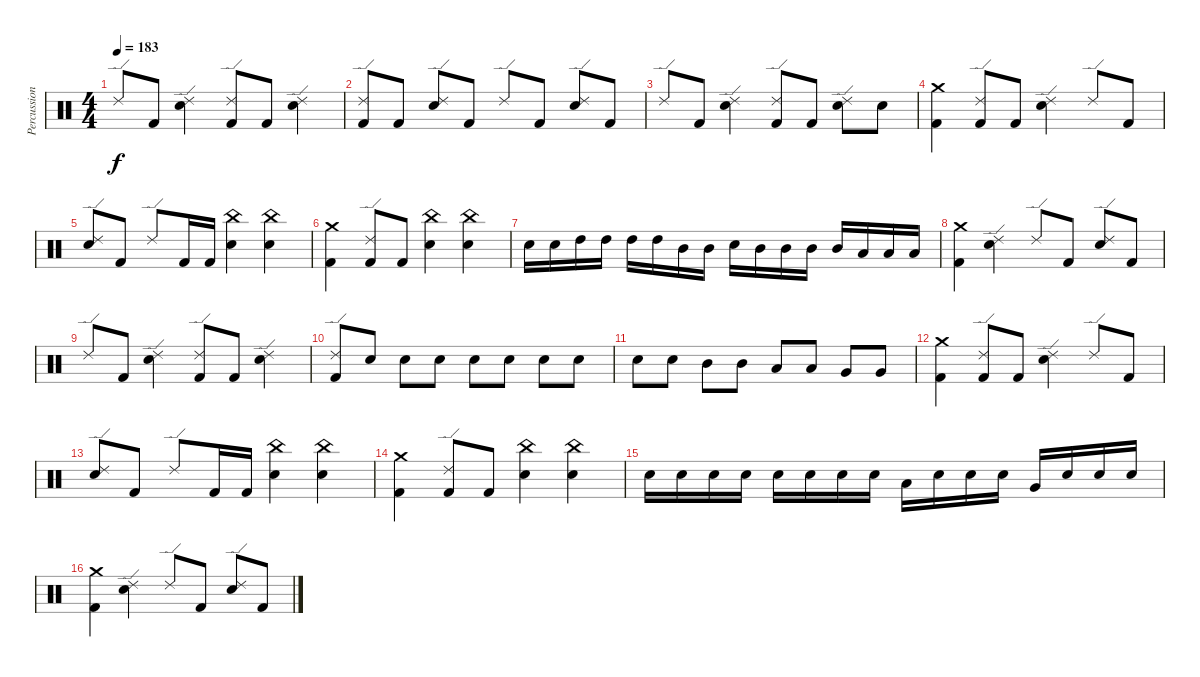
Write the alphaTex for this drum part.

\track ("Percussion" "Percussion") {instrument percussion}
\staff {score}
\articulation defaults
\ts (4 4)
\tempo 183
\clef neutral
\ks c "Ride (edge) 2".8{dy f} "Kick (hit) 2".8
("Ride (edge) 2" "Snare (hit) 2").4 ("Ride (edge) 2" "Kick (hit) 2").8 "Kick (hit) 2".8 ("Ride (edge) 2" "Snare (hit) 2").4 |
("Ride (edge) 2" "Kick (hit) 2").8 "Kick (hit) 2".8 ("Ride (edge) 2" "Snare (hit) 2").8 "Kick (hit) 2".8 "Ride (edge) 2".8 "Kick (hit) 2".8 ("Ride (edge) 2" "Snare (hit) 2").8 "Kick (hit) 2".8 |
"Ride (edge) 2".8 "Kick (hit) 2".8 ("Ride (edge) 2" "Snare (hit) 2").4 ("Ride (edge) 2" "Kick (hit) 2").8 "Kick (hit) 2".8 ("Ride (edge) 2" "Snare (hit) 2").8 "Snare (hit) 2".8 |
("Crash medium (hit)" "Kick (hit) 2").4 ("Ride (edge) 2" "Kick (hit) 2").8 "Kick (hit) 2".8 ("Ride (edge) 2" "Snare (hit) 2").4 "Ride (edge) 2".8 "Kick (hit) 2".8 |
("Ride (edge) 2" "Snare (hit) 2").8 "Kick (hit) 2".8 "Ride (edge) 2".8 "Kick (hit) 2".16 "Kick (hit) 2".16 ("China (hit)" "Snare (hit) 2").4 ("China (hit)" "Snare (hit) 2").4 |
("Crash medium (hit)" "Kick (hit) 2").4 ("Ride (edge) 2" "Kick (hit) 2").8 "Kick (hit) 2".8 ("China (hit)" "Snare (hit) 2").4 ("China (hit)" "Snare (hit) 2").4 |
"Snare (hit) 2".16 "Snare (hit) 2".16 "High Tom (hit)".16 "High Tom (hit)".16 "High Tom (hit)".16 "High Tom (hit)".16 "Mid Tom (hit)".16 "Mid Tom (hit)".16 "Snare (hit) 2".16 "Mid Tom (hit)".16 "Mid Tom (hit)".16 "Mid Tom (hit)".16 "Mid Tom (hit)".16 "Low Tom (hit)".16 "Low Tom (hit)".16 "Low Tom (hit)".16 |
("Crash medium (hit)" "Kick (hit) 2").4 ("Ride (edge) 2" "Snare (hit) 2").4 "Ride (edge) 2".8 "Kick (hit) 2".8 ("Ride (edge) 2" "Snare (hit) 2").8 "Kick (hit) 2".8 |
"Ride (edge) 2".8 "Kick (hit) 2".8 ("Ride (edge) 2" "Snare (hit) 2").4 ("Ride (edge) 2" "Kick (hit) 2").8 "Kick (hit) 2".8 ("Ride (edge) 2" "Snare (hit) 2").4 |
("Ride (edge) 2" "Kick (hit) 2").8 "Snare (hit) 2".8 "Snare (hit) 2".8 "Snare (hit) 2".8 "Snare (hit) 2".8 "Snare (hit) 2".8 "Snare (hit) 2".8 "Snare (hit) 2".8 |
"Snare (hit) 2".8 "Snare (hit) 2".8 "Mid Tom (hit)".8 "Mid Tom (hit)".8 "Low Tom (hit)".8 "Low Tom (hit)".8 "Very Low Tom (hit)".8 "Very Low Tom (hit)".8 |
("Crash medium (hit)" "Kick (hit) 2").4 ("Ride (edge) 2" "Kick (hit) 2").8 "Kick (hit) 2".8 ("Ride (edge) 2" "Snare (hit) 2").4 "Ride (edge) 2".8 "Kick (hit) 2".8 |
("Ride (edge) 2" "Snare (hit) 2").8 "Kick (hit) 2".8 "Ride (edge) 2".8 "Kick (hit) 2".16 "Kick (hit) 2".16 ("China (hit)" "Snare (hit) 2").4 ("China (hit)" "Snare (hit) 2").4 |
("Crash medium (hit)" "Kick (hit) 2").4 ("Ride (edge) 2" "Kick (hit) 2").8 "Kick (hit) 2".8 ("China (hit)" "Snare (hit) 2").4 ("China (hit)" "Snare (hit) 2").4 |
"Snare (hit) 2".16 "Snare (hit) 2".16 "Snare (hit) 2".16 "Snare (hit) 2".16 "Snare (hit) 2".16 "Snare (hit) 2".16 "Snare (hit) 2".16 "Snare (hit) 2".16 "Low Tom (hit)".16 "Snare (hit) 2".16 "Snare (hit) 2".16 "Snare (hit) 2".16 "Very Low Tom (hit)".16 "Snare (hit) 2".16 "Snare (hit) 2".16 "Snare (hit) 2".16 |
("Crash medium (hit)" "Kick (hit) 2").4 ("Ride (edge) 2" "Snare (hit) 2").4 "Ride (edge) 2".8 "Kick (hit) 2".8 ("Ride (edge) 2" "Snare (hit) 2").8 "Kick (hit) 2".8
